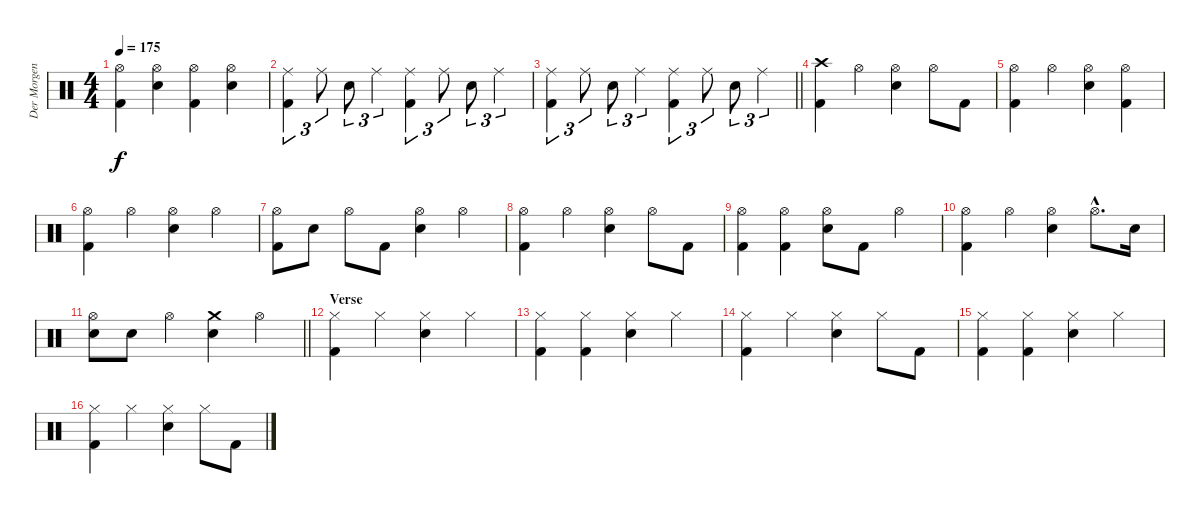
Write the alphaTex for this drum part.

\track ("Der Morgenstern" "Der Morgen") {instrument percussion}
\staff {score}
\articulation defaults
\ts (4 4)
\tempo 175
\clef neutral
\ks c
("Hi-Hat (open)" "Kick (hit) 2").4{dy f} ("Hi-Hat (open)" "Electric Snare (hit)").4 ("Hi-Hat (open)" "Kick (hit) 2").4 ("Hi-Hat (open)" "Electric Snare (hit)").4 |
("Ride (middle)" "Kick (hit) 2").4{tu (3 2)} "Ride (middle)".8{tu (3 2)} "Electric Snare (hit)".8{tu (3 2)} "Ride (middle)".4{tu (3 2)} ("Ride (middle)" "Kick (hit) 2").4{tu (3 2)} "Ride (middle)".8{tu (3 2)} "Electric Snare (hit)".8{tu (3 2)} "Ride (middle)".4{tu (3 2)} |
\barLineRight lightlight
("Ride (middle)" "Kick (hit) 2").4{tu (3 2)} "Ride (middle)".8{tu (3 2)} "Electric Snare (hit)".8{tu (3 2)} "Ride (middle)".4{tu (3 2)} ("Ride (middle)" "Kick (hit) 2").4{tu (3 2)} "Ride (middle)".8{tu (3 2)} "Electric Snare (hit)".8{tu (3 2)} "Ride (middle)".4{tu (3 2)} |
("Crash high (hit)" "Kick (hit) 2").4 "Hi-Hat (open)".4 ("Hi-Hat (open)" "Electric Snare (hit)").4 "Hi-Hat (open)".8 "Kick (hit) 2".8 |
("Hi-Hat (open)" "Kick (hit) 2").4 "Hi-Hat (open)".4 ("Hi-Hat (open)" "Electric Snare (hit)").4 ("Hi-Hat (open)" "Kick (hit) 2").4 |
("Hi-Hat (open)" "Kick (hit) 2").4 "Hi-Hat (open)".4 ("Hi-Hat (open)" "Electric Snare (hit)").4 "Hi-Hat (open)".4 |
("Hi-Hat (open)" "Kick (hit) 2").8 "Electric Snare (hit)".8 "Hi-Hat (open)".8 "Kick (hit) 2".8 ("Hi-Hat (open)" "Electric Snare (hit)").4 "Hi-Hat (open)".4 |
("Hi-Hat (open)" "Kick (hit) 2").4 "Hi-Hat (open)".4 ("Hi-Hat (open)" "Electric Snare (hit)").4 "Hi-Hat (open)".8 "Kick (hit) 2".8 |
("Hi-Hat (open)" "Kick (hit) 2").4 ("Hi-Hat (open)" "Kick (hit) 2").4 ("Hi-Hat (open)" "Electric Snare (hit)").8 "Kick (hit) 2".8 "Hi-Hat (open)".4 |
("Hi-Hat (open)" "Kick (hit) 2").4 "Hi-Hat (open)".4 ("Hi-Hat (open)" "Electric Snare (hit)").4 "Hi-Hat (open)"{hac}.8{d} "Electric Snare (hit)".16 |
\barLineRight lightlight
("Hi-Hat (open)" "Electric Snare (hit)").8 "Electric Snare (hit)".8 "Hi-Hat (open)".4 ("Crash medium (hit)" "Electric Snare (hit)").4 "Hi-Hat (open)".4 |
\section ("" "Verse")
("Hi-Hat (closed)" "Kick (hit) 2").4 "Hi-Hat (closed)".4 ("Hi-Hat (closed)" "Electric Snare (hit)").4 "Hi-Hat (closed)".4 |
("Hi-Hat (closed)" "Kick (hit) 2").4 ("Hi-Hat (closed)" "Kick (hit) 2").4 ("Hi-Hat (closed)" "Electric Snare (hit)").4 "Hi-Hat (closed)".4 |
("Hi-Hat (closed)" "Kick (hit) 2").4 "Hi-Hat (closed)".4 ("Hi-Hat (closed)" "Electric Snare (hit)").4 "Hi-Hat (closed)".8 "Kick (hit) 2".8 |
("Hi-Hat (closed)" "Kick (hit) 2").4 ("Hi-Hat (closed)" "Kick (hit) 2").4 ("Hi-Hat (closed)" "Electric Snare (hit)").4 "Hi-Hat (closed)".4 |
("Hi-Hat (closed)" "Kick (hit) 2").4 "Hi-Hat (closed)".4 ("Hi-Hat (closed)" "Electric Snare (hit)").4 "Hi-Hat (closed)".8 "Kick (hit) 2".8
